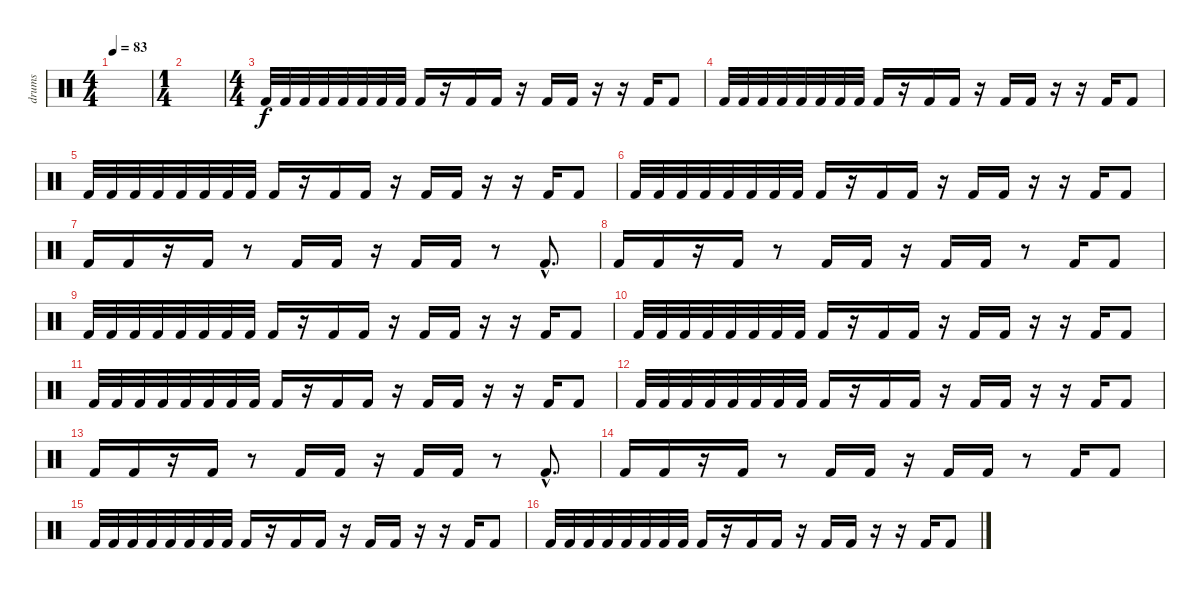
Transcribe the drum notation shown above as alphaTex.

\track ("drums" "drums") {instrument percussion}
\staff {score}
\articulation defaults
\ts (4 4)
\tempo 83
\clef neutral
\ks c
|
\ts (1 4)
|
\ts (4 4)
"Kick (hit) 2".32 "Kick (hit) 2".32 "Kick (hit) 2".32 "Kick (hit) 2".32 "Kick (hit) 2".32 "Kick (hit) 2".32 "Kick (hit) 2".32 "Kick (hit) 2".32 "Kick (hit) 2".16 r.16 "Kick (hit) 2".16 "Kick (hit) 2".16 r.16 "Kick (hit) 2".16 "Kick (hit) 2".16 r.16 r.16 "Kick (hit) 2".16 "Kick (hit) 2".8 |
"Kick (hit) 2".32 "Kick (hit) 2".32 "Kick (hit) 2".32 "Kick (hit) 2".32 "Kick (hit) 2".32 "Kick (hit) 2".32 "Kick (hit) 2".32 "Kick (hit) 2".32 "Kick (hit) 2".16 r.16 "Kick (hit) 2".16 "Kick (hit) 2".16 r.16 "Kick (hit) 2".16 "Kick (hit) 2".16 r.16 r.16 "Kick (hit) 2".16 "Kick (hit) 2".8 |
"Kick (hit) 2".32 "Kick (hit) 2".32 "Kick (hit) 2".32 "Kick (hit) 2".32 "Kick (hit) 2".32 "Kick (hit) 2".32 "Kick (hit) 2".32 "Kick (hit) 2".32 "Kick (hit) 2".16 r.16 "Kick (hit) 2".16 "Kick (hit) 2".16 r.16 "Kick (hit) 2".16 "Kick (hit) 2".16 r.16 r.16 "Kick (hit) 2".16 "Kick (hit) 2".8 |
"Kick (hit) 2".32 "Kick (hit) 2".32 "Kick (hit) 2".32 "Kick (hit) 2".32 "Kick (hit) 2".32 "Kick (hit) 2".32 "Kick (hit) 2".32 "Kick (hit) 2".32 "Kick (hit) 2".16 r.16 "Kick (hit) 2".16 "Kick (hit) 2".16 r.16 "Kick (hit) 2".16 "Kick (hit) 2".16 r.16 r.16 "Kick (hit) 2".16 "Kick (hit) 2".8 |
"Kick (hit) 2".16 "Kick (hit) 2".16 r.16 "Kick (hit) 2".16 r.8 "Kick (hit) 2".16 "Kick (hit) 2".16 r.16 "Kick (hit) 2".16 "Kick (hit) 2".16 r.8 "Kick (hit) 2"{hac}.8{d} |
"Kick (hit) 2".16 "Kick (hit) 2".16 r.16 "Kick (hit) 2".16 r.8 "Kick (hit) 2".16 "Kick (hit) 2".16 r.16 "Kick (hit) 2".16 "Kick (hit) 2".16 r.8 "Kick (hit) 2".16 "Kick (hit) 2".8 |
"Kick (hit) 2".32 "Kick (hit) 2".32 "Kick (hit) 2".32 "Kick (hit) 2".32 "Kick (hit) 2".32 "Kick (hit) 2".32 "Kick (hit) 2".32 "Kick (hit) 2".32 "Kick (hit) 2".16 r.16 "Kick (hit) 2".16 "Kick (hit) 2".16 r.16 "Kick (hit) 2".16 "Kick (hit) 2".16 r.16 r.16 "Kick (hit) 2".16 "Kick (hit) 2".8 |
"Kick (hit) 2".32 "Kick (hit) 2".32 "Kick (hit) 2".32 "Kick (hit) 2".32 "Kick (hit) 2".32 "Kick (hit) 2".32 "Kick (hit) 2".32 "Kick (hit) 2".32 "Kick (hit) 2".16 r.16 "Kick (hit) 2".16 "Kick (hit) 2".16 r.16 "Kick (hit) 2".16 "Kick (hit) 2".16 r.16 r.16 "Kick (hit) 2".16 "Kick (hit) 2".8 |
"Kick (hit) 2".32 "Kick (hit) 2".32 "Kick (hit) 2".32 "Kick (hit) 2".32 "Kick (hit) 2".32 "Kick (hit) 2".32 "Kick (hit) 2".32 "Kick (hit) 2".32 "Kick (hit) 2".16 r.16 "Kick (hit) 2".16 "Kick (hit) 2".16 r.16 "Kick (hit) 2".16 "Kick (hit) 2".16 r.16 r.16 "Kick (hit) 2".16 "Kick (hit) 2".8 |
"Kick (hit) 2".32 "Kick (hit) 2".32 "Kick (hit) 2".32 "Kick (hit) 2".32 "Kick (hit) 2".32 "Kick (hit) 2".32 "Kick (hit) 2".32 "Kick (hit) 2".32 "Kick (hit) 2".16 r.16 "Kick (hit) 2".16 "Kick (hit) 2".16 r.16 "Kick (hit) 2".16 "Kick (hit) 2".16 r.16 r.16 "Kick (hit) 2".16 "Kick (hit) 2".8 |
"Kick (hit) 2".16 "Kick (hit) 2".16 r.16 "Kick (hit) 2".16 r.8 "Kick (hit) 2".16 "Kick (hit) 2".16 r.16 "Kick (hit) 2".16 "Kick (hit) 2".16 r.8 "Kick (hit) 2"{hac}.8{d} |
"Kick (hit) 2".16 "Kick (hit) 2".16 r.16 "Kick (hit) 2".16 r.8 "Kick (hit) 2".16 "Kick (hit) 2".16 r.16 "Kick (hit) 2".16 "Kick (hit) 2".16 r.8 "Kick (hit) 2".16 "Kick (hit) 2".8 |
"Kick (hit) 2".32 "Kick (hit) 2".32 "Kick (hit) 2".32 "Kick (hit) 2".32 "Kick (hit) 2".32 "Kick (hit) 2".32 "Kick (hit) 2".32 "Kick (hit) 2".32 "Kick (hit) 2".16 r.16 "Kick (hit) 2".16 "Kick (hit) 2".16 r.16 "Kick (hit) 2".16 "Kick (hit) 2".16 r.16 r.16 "Kick (hit) 2".16 "Kick (hit) 2".8 |
"Kick (hit) 2".32 "Kick (hit) 2".32 "Kick (hit) 2".32 "Kick (hit) 2".32 "Kick (hit) 2".32 "Kick (hit) 2".32 "Kick (hit) 2".32 "Kick (hit) 2".32 "Kick (hit) 2".16 r.16 "Kick (hit) 2".16 "Kick (hit) 2".16 r.16 "Kick (hit) 2".16 "Kick (hit) 2".16 r.16 r.16 "Kick (hit) 2".16 "Kick (hit) 2".8
